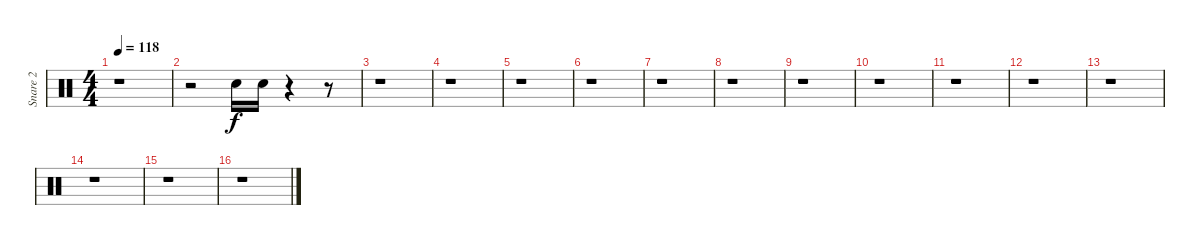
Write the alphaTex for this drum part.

\track ("Snare 2             " "Snare 2   ") {instrument percussion}
\staff {score}
\articulation defaults
\ts (4 4)
\tempo 118
\clef neutral
\ks c
r.1{dy f} |
r.2 "Electric Snare (hit)".16 "Electric Snare (hit)".16 r.4 r.8 |
r.1 |
r.1 |
r.1 |
r.1 |
r.1 |
r.1 |
r.1 |
r.1 |
r.1 |
r.1 |
r.1 |
r.1 |
r.1 |
r.1
